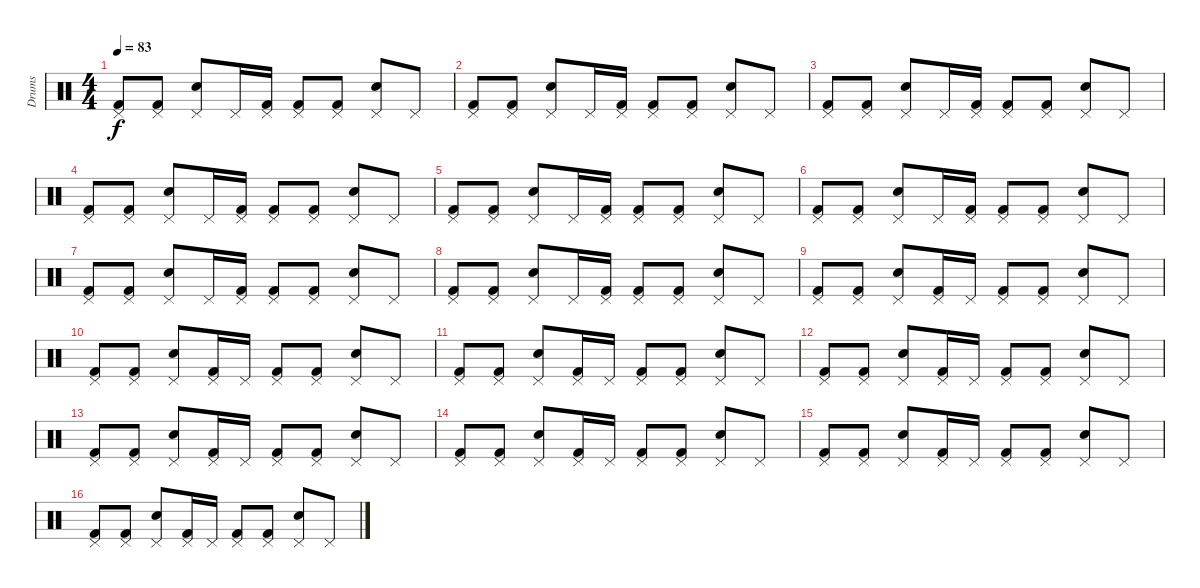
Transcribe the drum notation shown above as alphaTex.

\track ("Drums" "Drums") {instrument percussion}
\staff {score}
\articulation defaults
\ts (4 4)
\tempo 83
\clef neutral
\ks c
("Kick (hit) 2" "Pedal Hi-Hat (hit)").8{dy f} ("Kick (hit) 2" "Pedal Hi-Hat (hit)").8 ("Snare (hit) 2" "Pedal Hi-Hat (hit)").8 "Pedal Hi-Hat (hit)".16 ("Kick (hit) 2" "Pedal Hi-Hat (hit)").16 ("Kick (hit) 2" "Pedal Hi-Hat (hit)").8 ("Kick (hit) 2" "Pedal Hi-Hat (hit)").8 ("Snare (hit) 2" "Pedal Hi-Hat (hit)").8 "Pedal Hi-Hat (hit)".8 |
("Kick (hit) 2" "Pedal Hi-Hat (hit)").8 ("Kick (hit) 2" "Pedal Hi-Hat (hit)").8 ("Snare (hit) 2" "Pedal Hi-Hat (hit)").8 "Pedal Hi-Hat (hit)".16 ("Kick (hit) 2" "Pedal Hi-Hat (hit)").16 ("Kick (hit) 2" "Pedal Hi-Hat (hit)").8 ("Kick (hit) 2" "Pedal Hi-Hat (hit)").8 ("Snare (hit) 2" "Pedal Hi-Hat (hit)").8 "Pedal Hi-Hat (hit)".8 |
("Kick (hit) 2" "Pedal Hi-Hat (hit)").8 ("Kick (hit) 2" "Pedal Hi-Hat (hit)").8 ("Snare (hit) 2" "Pedal Hi-Hat (hit)").8 "Pedal Hi-Hat (hit)".16 ("Kick (hit) 2" "Pedal Hi-Hat (hit)").16 ("Kick (hit) 2" "Pedal Hi-Hat (hit)").8 ("Kick (hit) 2" "Pedal Hi-Hat (hit)").8 ("Snare (hit) 2" "Pedal Hi-Hat (hit)").8 "Pedal Hi-Hat (hit)".8 |
("Kick (hit) 2" "Pedal Hi-Hat (hit)").8 ("Kick (hit) 2" "Pedal Hi-Hat (hit)").8 ("Snare (hit) 2" "Pedal Hi-Hat (hit)").8 "Pedal Hi-Hat (hit)".16 ("Kick (hit) 2" "Pedal Hi-Hat (hit)").16 ("Kick (hit) 2" "Pedal Hi-Hat (hit)").8 ("Kick (hit) 2" "Pedal Hi-Hat (hit)").8 ("Snare (hit) 2" "Pedal Hi-Hat (hit)").8 "Pedal Hi-Hat (hit)".8 |
("Kick (hit) 2" "Pedal Hi-Hat (hit)").8 ("Kick (hit) 2" "Pedal Hi-Hat (hit)").8 ("Snare (hit) 2" "Pedal Hi-Hat (hit)").8 "Pedal Hi-Hat (hit)".16 ("Kick (hit) 2" "Pedal Hi-Hat (hit)").16 ("Kick (hit) 2" "Pedal Hi-Hat (hit)").8 ("Kick (hit) 2" "Pedal Hi-Hat (hit)").8 ("Snare (hit) 2" "Pedal Hi-Hat (hit)").8 "Pedal Hi-Hat (hit)".8 |
("Kick (hit) 2" "Pedal Hi-Hat (hit)").8 ("Kick (hit) 2" "Pedal Hi-Hat (hit)").8 ("Snare (hit) 2" "Pedal Hi-Hat (hit)").8 "Pedal Hi-Hat (hit)".16 ("Kick (hit) 2" "Pedal Hi-Hat (hit)").16 ("Kick (hit) 2" "Pedal Hi-Hat (hit)").8 ("Kick (hit) 2" "Pedal Hi-Hat (hit)").8 ("Snare (hit) 2" "Pedal Hi-Hat (hit)").8 "Pedal Hi-Hat (hit)".8 |
("Kick (hit) 2" "Pedal Hi-Hat (hit)").8 ("Kick (hit) 2" "Pedal Hi-Hat (hit)").8 ("Snare (hit) 2" "Pedal Hi-Hat (hit)").8 "Pedal Hi-Hat (hit)".16 ("Kick (hit) 2" "Pedal Hi-Hat (hit)").16 ("Kick (hit) 2" "Pedal Hi-Hat (hit)").8 ("Kick (hit) 2" "Pedal Hi-Hat (hit)").8 ("Snare (hit) 2" "Pedal Hi-Hat (hit)").8 "Pedal Hi-Hat (hit)".8 |
("Kick (hit) 2" "Pedal Hi-Hat (hit)").8 ("Kick (hit) 2" "Pedal Hi-Hat (hit)").8 ("Snare (hit) 2" "Pedal Hi-Hat (hit)").8 "Pedal Hi-Hat (hit)".16 ("Kick (hit) 2" "Pedal Hi-Hat (hit)").16 ("Kick (hit) 2" "Pedal Hi-Hat (hit)").8 ("Kick (hit) 2" "Pedal Hi-Hat (hit)").8 ("Snare (hit) 2" "Pedal Hi-Hat (hit)").8 "Pedal Hi-Hat (hit)".8 |
("Kick (hit) 2" "Pedal Hi-Hat (hit)").8 ("Kick (hit) 2" "Pedal Hi-Hat (hit)").8 ("Snare (hit) 2" "Pedal Hi-Hat (hit)").8 ("Kick (hit) 2" "Pedal Hi-Hat (hit)").16 "Pedal Hi-Hat (hit)".16 ("Kick (hit) 2" "Pedal Hi-Hat (hit)").8 ("Kick (hit) 2" "Pedal Hi-Hat (hit)").8 ("Snare (hit) 2" "Pedal Hi-Hat (hit)").8 "Pedal Hi-Hat (hit)".8 |
("Kick (hit) 2" "Pedal Hi-Hat (hit)").8 ("Kick (hit) 2" "Pedal Hi-Hat (hit)").8 ("Snare (hit) 2" "Pedal Hi-Hat (hit)").8 ("Kick (hit) 2" "Pedal Hi-Hat (hit)").16 "Pedal Hi-Hat (hit)".16 ("Kick (hit) 2" "Pedal Hi-Hat (hit)").8 ("Kick (hit) 2" "Pedal Hi-Hat (hit)").8 ("Snare (hit) 2" "Pedal Hi-Hat (hit)").8 "Pedal Hi-Hat (hit)".8 |
("Kick (hit) 2" "Pedal Hi-Hat (hit)").8 ("Kick (hit) 2" "Pedal Hi-Hat (hit)").8 ("Snare (hit) 2" "Pedal Hi-Hat (hit)").8 ("Kick (hit) 2" "Pedal Hi-Hat (hit)").16 "Pedal Hi-Hat (hit)".16 ("Kick (hit) 2" "Pedal Hi-Hat (hit)").8 ("Kick (hit) 2" "Pedal Hi-Hat (hit)").8 ("Snare (hit) 2" "Pedal Hi-Hat (hit)").8 "Pedal Hi-Hat (hit)".8 |
("Kick (hit) 2" "Pedal Hi-Hat (hit)").8 ("Kick (hit) 2" "Pedal Hi-Hat (hit)").8 ("Snare (hit) 2" "Pedal Hi-Hat (hit)").8 ("Kick (hit) 2" "Pedal Hi-Hat (hit)").16 "Pedal Hi-Hat (hit)".16 ("Kick (hit) 2" "Pedal Hi-Hat (hit)").8 ("Kick (hit) 2" "Pedal Hi-Hat (hit)").8 ("Snare (hit) 2" "Pedal Hi-Hat (hit)").8 "Pedal Hi-Hat (hit)".8 |
("Kick (hit) 2" "Pedal Hi-Hat (hit)").8 ("Kick (hit) 2" "Pedal Hi-Hat (hit)").8 ("Snare (hit) 2" "Pedal Hi-Hat (hit)").8 ("Kick (hit) 2" "Pedal Hi-Hat (hit)").16 "Pedal Hi-Hat (hit)".16 ("Kick (hit) 2" "Pedal Hi-Hat (hit)").8 ("Kick (hit) 2" "Pedal Hi-Hat (hit)").8 ("Snare (hit) 2" "Pedal Hi-Hat (hit)").8 "Pedal Hi-Hat (hit)".8 |
("Kick (hit) 2" "Pedal Hi-Hat (hit)").8 ("Kick (hit) 2" "Pedal Hi-Hat (hit)").8 ("Snare (hit) 2" "Pedal Hi-Hat (hit)").8 ("Kick (hit) 2" "Pedal Hi-Hat (hit)").16 "Pedal Hi-Hat (hit)".16 ("Kick (hit) 2" "Pedal Hi-Hat (hit)").8 ("Kick (hit) 2" "Pedal Hi-Hat (hit)").8 ("Snare (hit) 2" "Pedal Hi-Hat (hit)").8 "Pedal Hi-Hat (hit)".8 |
("Kick (hit) 2" "Pedal Hi-Hat (hit)").8 ("Kick (hit) 2" "Pedal Hi-Hat (hit)").8 ("Snare (hit) 2" "Pedal Hi-Hat (hit)").8 ("Kick (hit) 2" "Pedal Hi-Hat (hit)").16 "Pedal Hi-Hat (hit)".16 ("Kick (hit) 2" "Pedal Hi-Hat (hit)").8 ("Kick (hit) 2" "Pedal Hi-Hat (hit)").8 ("Snare (hit) 2" "Pedal Hi-Hat (hit)").8 "Pedal Hi-Hat (hit)".8 |
("Kick (hit) 2" "Pedal Hi-Hat (hit)").8 ("Kick (hit) 2" "Pedal Hi-Hat (hit)").8 ("Snare (hit) 2" "Pedal Hi-Hat (hit)").8 ("Kick (hit) 2" "Pedal Hi-Hat (hit)").16 "Pedal Hi-Hat (hit)".16 ("Kick (hit) 2" "Pedal Hi-Hat (hit)").8 ("Kick (hit) 2" "Pedal Hi-Hat (hit)").8 ("Snare (hit) 2" "Pedal Hi-Hat (hit)").8 "Pedal Hi-Hat (hit)".8
